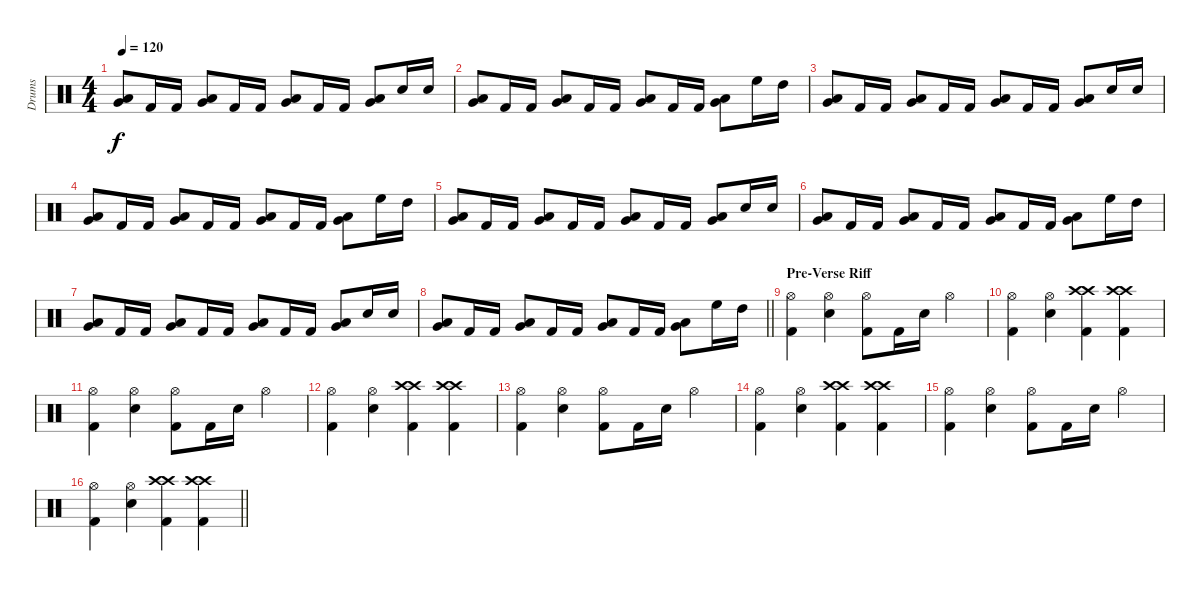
\track ("Drums" "Drums") {instrument percussion}
\staff {score}
\articulation defaults
\ts (4 4)
\tempo 120
\clef neutral
\ks c
("Low Floor Tom (hit)" "Very Low Tom (hit)").8{dy f} "Kick (hit) 2".16 "Kick (hit) 2".16 ("Low Floor Tom (hit)" "Very Low Tom (hit)").8 "Kick (hit) 2".16 "Kick (hit) 2".16 ("Low Floor Tom (hit)" "Very Low Tom (hit)").8 "Kick (hit) 2".16 "Kick (hit) 2".16 ("Low Floor Tom (hit)" "Very Low Tom (hit)").8 "Electric Snare (hit)".16 "Electric Snare (hit)".16 |
("Low Floor Tom (hit)" "Very Low Tom (hit)").8 "Kick (hit) 2".16 "Kick (hit) 2".16 ("Low Floor Tom (hit)" "Very Low Tom (hit)").8 "Kick (hit) 2".16 "Kick (hit) 2".16 ("Low Floor Tom (hit)" "Very Low Tom (hit)").8 "Kick (hit) 2".16 "Kick (hit) 2".16 ("Low Floor Tom (hit)" "Very Low Tom (hit)").8 "High Floor Tom (hit)".16 "High Tom (hit)".16 |
("Low Floor Tom (hit)" "Very Low Tom (hit)").8 "Kick (hit) 2".16 "Kick (hit) 2".16 ("Low Floor Tom (hit)" "Very Low Tom (hit)").8 "Kick (hit) 2".16 "Kick (hit) 2".16 ("Low Floor Tom (hit)" "Very Low Tom (hit)").8 "Kick (hit) 2".16 "Kick (hit) 2".16 ("Low Floor Tom (hit)" "Very Low Tom (hit)").8 "Electric Snare (hit)".16 "Electric Snare (hit)".16 |
("Low Floor Tom (hit)" "Very Low Tom (hit)").8 "Kick (hit) 2".16 "Kick (hit) 2".16 ("Low Floor Tom (hit)" "Very Low Tom (hit)").8 "Kick (hit) 2".16 "Kick (hit) 2".16 ("Low Floor Tom (hit)" "Very Low Tom (hit)").8 "Kick (hit) 2".16 "Kick (hit) 2".16 ("Low Floor Tom (hit)" "Very Low Tom (hit)").8 "High Floor Tom (hit)".16 "High Tom (hit)".16 |
("Low Floor Tom (hit)" "Very Low Tom (hit)").8 "Kick (hit) 2".16 "Kick (hit) 2".16 ("Low Floor Tom (hit)" "Very Low Tom (hit)").8 "Kick (hit) 2".16 "Kick (hit) 2".16 ("Low Floor Tom (hit)" "Very Low Tom (hit)").8 "Kick (hit) 2".16 "Kick (hit) 2".16 ("Low Floor Tom (hit)" "Very Low Tom (hit)").8 "Electric Snare (hit)".16 "Electric Snare (hit)".16 |
("Low Floor Tom (hit)" "Very Low Tom (hit)").8 "Kick (hit) 2".16 "Kick (hit) 2".16 ("Low Floor Tom (hit)" "Very Low Tom (hit)").8 "Kick (hit) 2".16 "Kick (hit) 2".16 ("Low Floor Tom (hit)" "Very Low Tom (hit)").8 "Kick (hit) 2".16 "Kick (hit) 2".16 ("Low Floor Tom (hit)" "Very Low Tom (hit)").8 "High Floor Tom (hit)".16 "High Tom (hit)".16 |
("Low Floor Tom (hit)" "Very Low Tom (hit)").8 "Kick (hit) 2".16 "Kick (hit) 2".16 ("Low Floor Tom (hit)" "Very Low Tom (hit)").8 "Kick (hit) 2".16 "Kick (hit) 2".16 ("Low Floor Tom (hit)" "Very Low Tom (hit)").8 "Kick (hit) 2".16 "Kick (hit) 2".16 ("Low Floor Tom (hit)" "Very Low Tom (hit)").8 "Electric Snare (hit)".16 "Electric Snare (hit)".16 |
\barLineRight lightlight
("Low Floor Tom (hit)" "Very Low Tom (hit)").8 "Kick (hit) 2".16 "Kick (hit) 2".16 ("Low Floor Tom (hit)" "Very Low Tom (hit)").8 "Kick (hit) 2".16 "Kick (hit) 2".16 ("Low Floor Tom (hit)" "Very Low Tom (hit)").8 "Kick (hit) 2".16 "Kick (hit) 2".16 ("Low Floor Tom (hit)" "Very Low Tom (hit)").8 "High Floor Tom (hit)".16 "High Tom (hit)".16 |
\section ("" "Pre-Verse Riff")
("Hi-Hat (open)" "Kick (hit) 2").4 ("Hi-Hat (open)" "Electric Snare (hit)").4 ("Hi-Hat (open)" "Kick (hit) 2").8 "Kick (hit) 2".16 "Electric Snare (hit)".16 "Hi-Hat (open)".4 |
("Hi-Hat (open)" "Kick (hit) 2").4 ("Hi-Hat (open)" "Electric Snare (hit)").4 ("Crash high (hit)" "Crash high (hit)" "Kick (hit) 2").4 ("Crash high (hit)" "Crash high (hit)" "Kick (hit) 2").4 |
("Hi-Hat (open)" "Kick (hit) 2").4 ("Hi-Hat (open)" "Electric Snare (hit)").4 ("Hi-Hat (open)" "Kick (hit) 2").8 "Kick (hit) 2".16 "Electric Snare (hit)".16 "Hi-Hat (open)".4 |
("Hi-Hat (open)" "Kick (hit) 2").4 ("Hi-Hat (open)" "Electric Snare (hit)").4 ("Crash high (hit)" "Crash high (hit)" "Kick (hit) 2").4 ("Crash high (hit)" "Crash high (hit)" "Kick (hit) 2").4 |
("Hi-Hat (open)" "Kick (hit) 2").4 ("Hi-Hat (open)" "Electric Snare (hit)").4 ("Hi-Hat (open)" "Kick (hit) 2").8 "Kick (hit) 2".16 "Electric Snare (hit)".16 "Hi-Hat (open)".4 |
("Hi-Hat (open)" "Kick (hit) 2").4 ("Hi-Hat (open)" "Electric Snare (hit)").4 ("Crash high (hit)" "Crash high (hit)" "Kick (hit) 2").4 ("Crash high (hit)" "Crash high (hit)" "Kick (hit) 2").4 |
("Hi-Hat (open)" "Kick (hit) 2").4 ("Hi-Hat (open)" "Electric Snare (hit)").4 ("Hi-Hat (open)" "Kick (hit) 2").8 "Kick (hit) 2".16 "Electric Snare (hit)".16 "Hi-Hat (open)".4 |
\barLineRight lightlight
("Hi-Hat (open)" "Kick (hit) 2").4 ("Hi-Hat (open)" "Electric Snare (hit)").4 ("Crash high (hit)" "Crash high (hit)" "Kick (hit) 2").4 ("Crash high (hit)" "Crash high (hit)" "Kick (hit) 2").4
